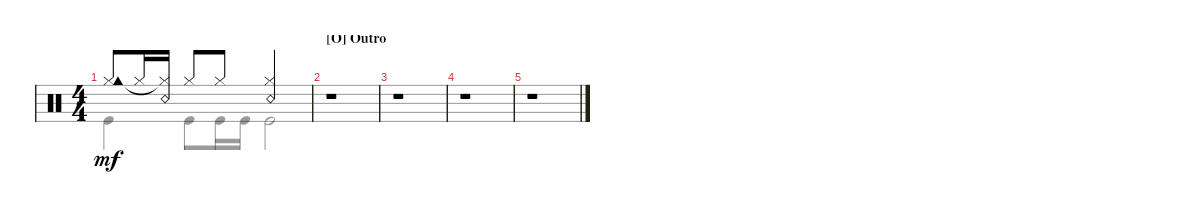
\defaultSystemsLayout 4
\bracketExtendMode groupsimilarinstruments
\singleTrackTrackNamePolicy hidden
\multiTrackTrackNamePolicy hidden
\firstSystemTrackNameOrientation horizontal
\otherSystemsTrackNameOrientation horizontal
\track ("Максим Удалов" "Drums") {instrument percussion}
\staff {score}
\articulation defaults
\voice
\ts (4 4)
\tempo (110 hide)
\clef neutral
\scale
1.02648
\ks c
("Hi-Hat (closed)" "Cowbell high (hit)").8{dy mf} "Hi-Hat (closed)".16 ("Snare (rim shot)" "Hi-Hat (closed)"{t}).16 "Hi-Hat (closed)".8 "Hi-Hat (closed)".8 ("Hi-Hat (closed)" "Snare (rim shot)").2 |
\section ("O" "Outro")
\scale
0.973518 r.1 |
\scale
1.02648 r.1 |
\scale
0.973518 r.1 |
r.1
\voice
\clef neutral
\ottava regular
\simile none
\scale
1.02648
\ks c "Kick (hit)".4{dy mf} "Kick (hit)".8 "Kick (hit)".16 "Kick (hit)".16 "Kick (hit)".2
|
\scale
0.973518 |
\scale
1.02648 |
\scale
0.973518 |
